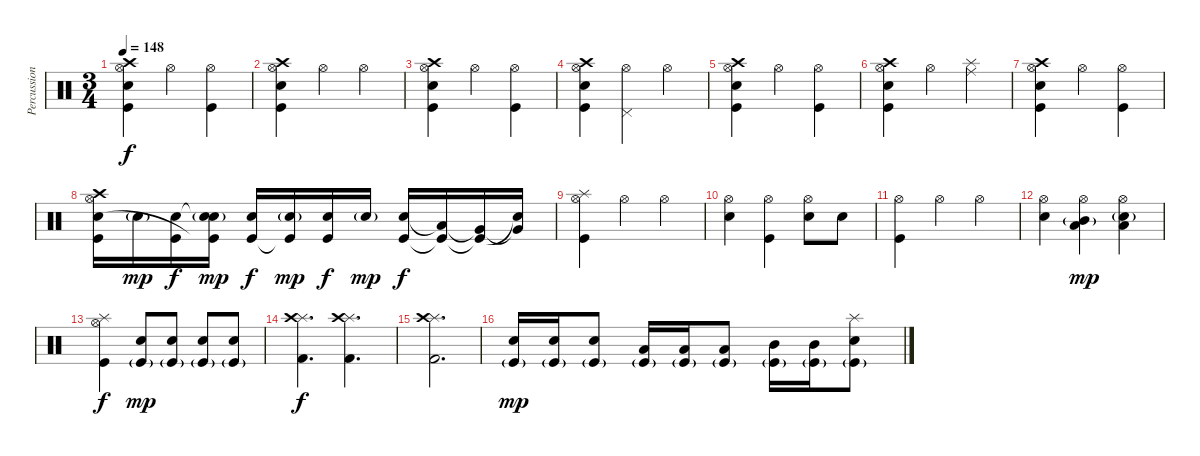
\track ("Percussion" "Percussion") {instrument percussion}
\staff {score}
\articulation defaults
\ts (3 4)
\tempo 148
\clef neutral
\ks c
("Hi-Hat (open)" "Crash high (hit)" "Snare (hit) 2" "Kick (hit)").4{dy f volume 12} "Hi-Hat (open)".4 ("Hi-Hat (open)" "Kick (hit)").4 |
("Hi-Hat (open)" "Crash high (hit)" "Snare (hit) 2" "Kick (hit)").4 "Hi-Hat (open)".4 "Hi-Hat (open)".4 |
("Hi-Hat (open)" "Crash high (hit)" "Snare (hit) 2" "Kick (hit)").4 "Hi-Hat (open)".4 ("Hi-Hat (open)" "Kick (hit)").4 |
("Hi-Hat (open)" "Crash high (hit)" "Snare (hit) 2" "Kick (hit)").4 ("Hi-Hat (open)" "Pedal Hi-Hat (hit)").4 "Hi-Hat (open)".4 |
("Hi-Hat (open)" "Crash high (hit)" "Snare (hit) 2" "Kick (hit)").4 "Hi-Hat (open)".4 ("Hi-Hat (open)" "Kick (hit)").4 |
("Hi-Hat (open)" "Crash high (hit)" "Snare (hit) 2" "Kick (hit)").4 "Hi-Hat (open)".4 ("Ride (middle)" "Splash (hit)").4 |
("Hi-Hat (open)" "Crash high (hit)" "Snare (hit) 2" "Kick (hit)").4 "Hi-Hat (open)".4 ("Hi-Hat (open)" "Kick (hit)").4 |
("Hi-Hat (open)" "Crash high (hit)" "Snare (hit) 2" "Kick (hit)").16 "Snare (hit) 2"{g}.16{dy mp} ("Snare (hit) 2" "Kick (hit)").16{dy f} ("Snare (hit) 2"{t} "Snare (hit) 2"{g} "Kick (hit)"{t}).16{dy mp} ("Snare (hit) 2" "Kick (hit)").16{dy f} ("Snare (hit) 2"{g} "Kick (hit)"{t}).16{dy mp} ("Snare (hit) 2" "Kick (hit)").16{dy f} "Snare (hit) 2"{g}.16{dy mp} ("Snare (hit) 2" "Kick (hit)").16{dy f} ("Low Tom (hit)"{t} "Kick (hit)"{t}).16 ("Very Low Tom (hit)"{t} "Kick (hit)"{t}).16 ("Very Low Tom (hit)"{t} "Snare (hit)"{t}).16 |
("Hi-Hat (open)" "Splash (hit)" "Kick (hit)").4 "Hi-Hat (open)".4 "Hi-Hat (open)".4 |
("Hi-Hat (open)" "Snare (hit) 2").4 ("Hi-Hat (open)" "Kick (hit)").4 ("Hi-Hat (open)" "Snare (hit) 2").8 "Snare (hit) 2".8 |
("Hi-Hat (open)" "Kick (hit)").4 "Hi-Hat (open)".4 "Hi-Hat (open)".4 |
("Hi-Hat (open)" "Snare (hit) 2").4 ("Hi-Hat (open)" "Mid Tom (hit)"{g} "Low Tom (hit)").4{dy mp} ("Hi-Hat (open)" "Snare (hit) 2"{g} "Low Floor Tom (hit)").4 |
("Hi-Hat (open)" "Splash (hit)" "Kick (hit)").4{dy f} ("Snare (hit) 2" "Kick (hit)"{g}).8{dy mp} ("Snare (hit) 2" "Kick (hit)"{g}).8 ("Snare (hit) 2" "Kick (hit)"{g}).8 ("Snare (hit) 2" "Kick (hit)"{g}).8 |
("Splash (hit)" "Crash high (hit)" "Kick (hit) 2").4{d dy f} ("Splash (hit)" "Crash high (hit)" "Kick (hit) 2").4{d} |
("Splash (hit)" "Crash high (hit)" "Kick (hit) 2").2{d} |
("Snare (hit) 2" "Kick (hit)"{g}).16{dy mp volume 9} ("Snare (hit) 2" "Kick (hit)"{g}).16 ("Snare (hit) 2" "Kick (hit)"{g}).8 ("Low Tom (hit)" "Kick (hit)"{g}).16 ("Low Tom (hit)" "Kick (hit)"{g}).16 ("Low Tom (hit)" "Kick (hit)"{g}).8 ("Mid Tom (hit)" "Kick (hit)"{g}).16 ("Mid Tom (hit)" "Kick (hit)"{g}).16 ("Snare (hit) 2" "Splash (hit)" "Kick (hit)"{g}).8
